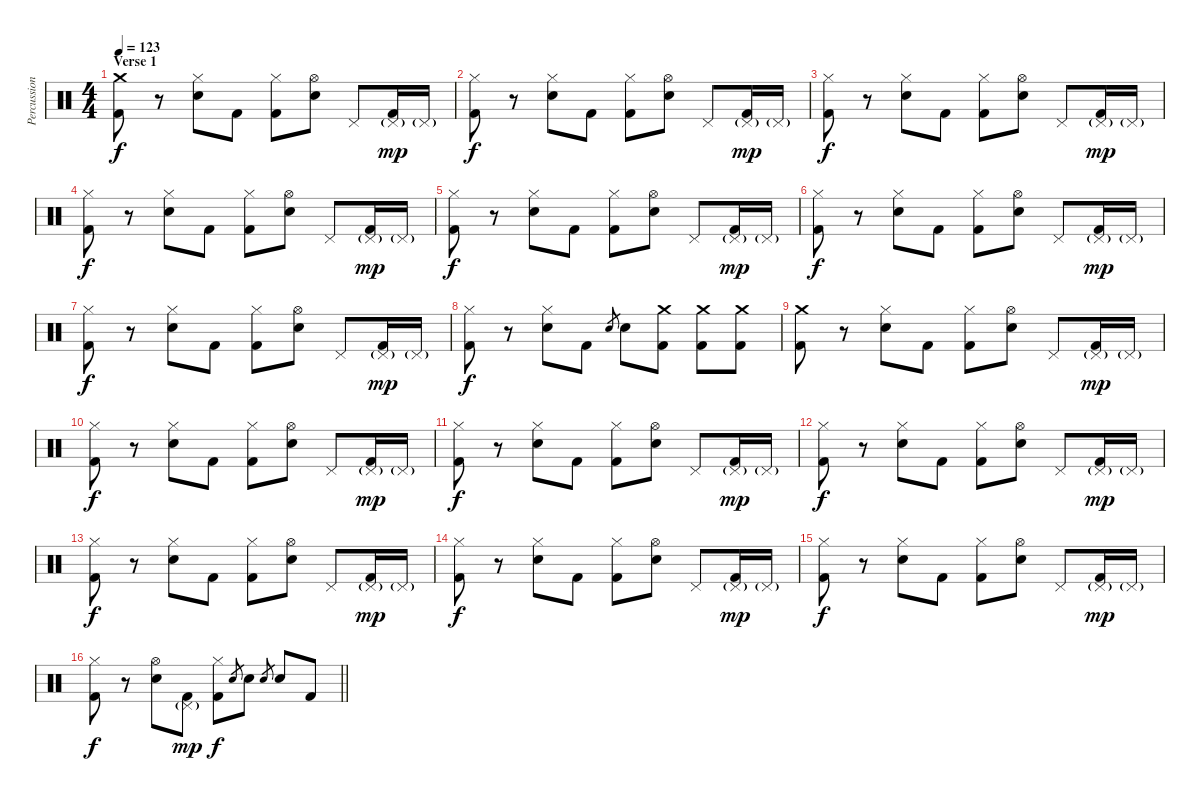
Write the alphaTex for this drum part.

\track ("Percussion" "Percussion") {instrument percussion}
\staff {score}
\articulation defaults
\ts (4 4)
\section ("" "Verse 1")
\tempo 123
\clef neutral
\ks c
("Crash medium (hit)" "Kick (hit) 2").8{dy f} r.8 ("Hi-Hat (closed)" "Electric Snare (hit)").8 "Kick (hit) 2".8 ("Hi-Hat (closed)" "Kick (hit) 2").8 ("Hi-Hat (open)" "Electric Snare (hit)").8 "Pedal Hi-Hat (hit)".8 ("Pedal Hi-Hat (hit)"{g} "Kick (hit) 2").16{dy mp} "Pedal Hi-Hat (hit)"{g}.16 |
("Hi-Hat (closed)" "Kick (hit) 2").8{dy f} r.8 ("Hi-Hat (closed)" "Electric Snare (hit)").8 "Kick (hit) 2".8 ("Hi-Hat (closed)" "Kick (hit) 2").8 ("Hi-Hat (open)" "Electric Snare (hit)").8 "Pedal Hi-Hat (hit)".8 ("Pedal Hi-Hat (hit)"{g} "Kick (hit) 2").16{dy mp} "Pedal Hi-Hat (hit)"{g}.16 |
("Hi-Hat (closed)" "Kick (hit) 2").8{dy f} r.8 ("Hi-Hat (closed)" "Electric Snare (hit)").8 "Kick (hit) 2".8 ("Hi-Hat (closed)" "Kick (hit) 2").8 ("Hi-Hat (open)" "Electric Snare (hit)").8 "Pedal Hi-Hat (hit)".8 ("Pedal Hi-Hat (hit)"{g} "Kick (hit) 2").16{dy mp} "Pedal Hi-Hat (hit)"{g}.16 |
("Hi-Hat (closed)" "Kick (hit) 2").8{dy f} r.8 ("Hi-Hat (closed)" "Electric Snare (hit)").8 "Kick (hit) 2".8 ("Hi-Hat (closed)" "Kick (hit) 2").8 ("Hi-Hat (open)" "Electric Snare (hit)").8 "Pedal Hi-Hat (hit)".8 ("Pedal Hi-Hat (hit)"{g} "Kick (hit) 2").16{dy mp} "Pedal Hi-Hat (hit)"{g}.16 |
("Hi-Hat (closed)" "Kick (hit) 2").8{dy f} r.8 ("Hi-Hat (closed)" "Electric Snare (hit)").8 "Kick (hit) 2".8 ("Hi-Hat (closed)" "Kick (hit) 2").8 ("Hi-Hat (open)" "Electric Snare (hit)").8 "Pedal Hi-Hat (hit)".8 ("Pedal Hi-Hat (hit)"{g} "Kick (hit) 2").16{dy mp} "Pedal Hi-Hat (hit)"{g}.16 |
("Hi-Hat (closed)" "Kick (hit) 2").8{dy f} r.8 ("Hi-Hat (closed)" "Electric Snare (hit)").8 "Kick (hit) 2".8 ("Hi-Hat (closed)" "Kick (hit) 2").8 ("Hi-Hat (open)" "Electric Snare (hit)").8 "Pedal Hi-Hat (hit)".8 ("Pedal Hi-Hat (hit)"{g} "Kick (hit) 2").16{dy mp} "Pedal Hi-Hat (hit)"{g}.16 |
("Hi-Hat (closed)" "Kick (hit) 2").8{dy f} r.8 ("Hi-Hat (closed)" "Electric Snare (hit)").8 "Kick (hit) 2".8 ("Hi-Hat (closed)" "Kick (hit) 2").8 ("Hi-Hat (open)" "Electric Snare (hit)").8 "Pedal Hi-Hat (hit)".8 ("Pedal Hi-Hat (hit)"{g} "Kick (hit) 2").16{dy mp} "Pedal Hi-Hat (hit)"{g}.16 |
("Hi-Hat (closed)" "Kick (hit) 2").8{dy f} r.8 ("Hi-Hat (closed)" "Electric Snare (hit)").8 "Kick (hit) 2".8 "Electric Snare (hit)".8{gr} "Electric Snare (hit)".8 ("Crash medium (hit)" "Kick (hit) 2").8 ("Crash medium (hit)" "Kick (hit) 2").8 ("Crash medium (hit)" "Kick (hit) 2").8 |
("Crash medium (hit)" "Kick (hit) 2").8 r.8 ("Hi-Hat (closed)" "Electric Snare (hit)").8 "Kick (hit) 2".8 ("Hi-Hat (closed)" "Kick (hit) 2").8 ("Hi-Hat (open)" "Electric Snare (hit)").8 "Pedal Hi-Hat (hit)".8 ("Pedal Hi-Hat (hit)"{g} "Kick (hit) 2").16{dy mp} "Pedal Hi-Hat (hit)"{g}.16 |
("Hi-Hat (closed)" "Kick (hit) 2").8{dy f} r.8 ("Hi-Hat (closed)" "Electric Snare (hit)").8 "Kick (hit) 2".8 ("Hi-Hat (closed)" "Kick (hit) 2").8 ("Hi-Hat (open)" "Electric Snare (hit)").8 "Pedal Hi-Hat (hit)".8 ("Pedal Hi-Hat (hit)"{g} "Kick (hit) 2").16{dy mp} "Pedal Hi-Hat (hit)"{g}.16 |
("Hi-Hat (closed)" "Kick (hit) 2").8{dy f} r.8 ("Hi-Hat (closed)" "Electric Snare (hit)").8 "Kick (hit) 2".8 ("Hi-Hat (closed)" "Kick (hit) 2").8 ("Hi-Hat (open)" "Electric Snare (hit)").8 "Pedal Hi-Hat (hit)".8 ("Pedal Hi-Hat (hit)"{g} "Kick (hit) 2").16{dy mp} "Pedal Hi-Hat (hit)"{g}.16 |
("Hi-Hat (closed)" "Kick (hit) 2").8{dy f} r.8 ("Hi-Hat (closed)" "Electric Snare (hit)").8 "Kick (hit) 2".8 ("Hi-Hat (closed)" "Kick (hit) 2").8 ("Hi-Hat (open)" "Electric Snare (hit)").8 "Pedal Hi-Hat (hit)".8 ("Pedal Hi-Hat (hit)"{g} "Kick (hit) 2").16{dy mp} "Pedal Hi-Hat (hit)"{g}.16 |
("Hi-Hat (closed)" "Kick (hit) 2").8{dy f} r.8 ("Hi-Hat (closed)" "Electric Snare (hit)").8 "Kick (hit) 2".8 ("Hi-Hat (closed)" "Kick (hit) 2").8 ("Hi-Hat (open)" "Electric Snare (hit)").8 "Pedal Hi-Hat (hit)".8 ("Pedal Hi-Hat (hit)"{g} "Kick (hit) 2").16{dy mp} "Pedal Hi-Hat (hit)"{g}.16 |
("Hi-Hat (closed)" "Kick (hit) 2").8{dy f} r.8 ("Hi-Hat (closed)" "Electric Snare (hit)").8 "Kick (hit) 2".8 ("Hi-Hat (closed)" "Kick (hit) 2").8 ("Hi-Hat (open)" "Electric Snare (hit)").8 "Pedal Hi-Hat (hit)".8 ("Pedal Hi-Hat (hit)"{g} "Kick (hit) 2").16{dy mp} "Pedal Hi-Hat (hit)"{g}.16 |
("Hi-Hat (closed)" "Kick (hit) 2").8{dy f} r.8 ("Hi-Hat (closed)" "Electric Snare (hit)").8 "Kick (hit) 2".8 ("Hi-Hat (closed)" "Kick (hit) 2").8 ("Hi-Hat (open)" "Electric Snare (hit)").8 "Pedal Hi-Hat (hit)".8 ("Pedal Hi-Hat (hit)"{g} "Kick (hit) 2").16{dy mp} "Pedal Hi-Hat (hit)"{g}.16 |
\barLineRight lightlight
("Hi-Hat (closed)" "Kick (hit) 2").8{dy f} r.8 ("Hi-Hat (open)" "Electric Snare (hit)").8 ("Pedal Hi-Hat (hit)"{g} "Kick (hit) 2").8{dy mp} ("Hi-Hat (closed)" "Kick (hit) 2").8{dy f} "Electric Snare (hit)".8{gr} "Electric Snare (hit)".8 "Electric Snare (hit)".8{gr} "Electric Snare (hit)".8 "Kick (hit) 2".8
